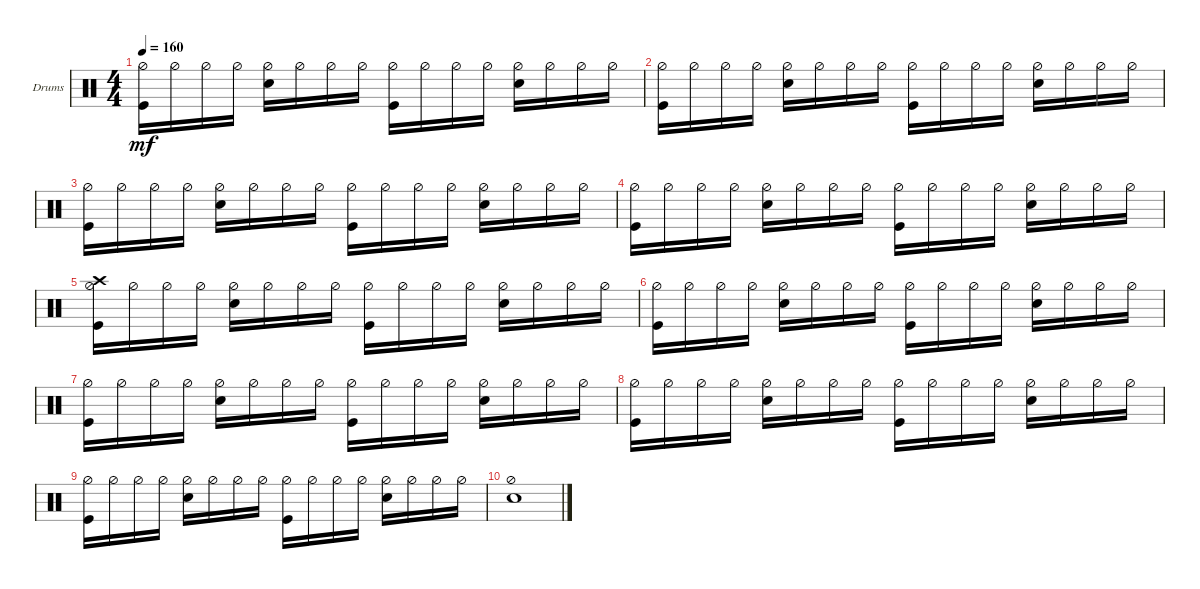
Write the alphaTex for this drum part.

\defaultSystemsLayout 4
\bracketExtendMode groupsimilarinstruments
\firstSystemTrackNameOrientation horizontal
\otherSystemsTrackNameOrientation horizontal
\track ("Drumkit" "Drums") {instrument percussion}
\staff {score}
\articulation defaults
\ts (4 4)
\tempo 160
\clef neutral
\ks c
("Hi-Hat (half)" "Kick (hit)").16{dy mf} "Hi-Hat (half)".16 "Hi-Hat (half)".16 "Hi-Hat (half)".16 ("Hi-Hat (half)" "Snare (hit) 2").16 "Hi-Hat (half)".16 "Hi-Hat (half)".16 "Hi-Hat (half)".16 ("Hi-Hat (half)" "Kick (hit)").16 "Hi-Hat (half)".16 "Hi-Hat (half)".16 "Hi-Hat (half)".16 ("Hi-Hat (half)" "Snare (hit) 2").16 "Hi-Hat (half)".16 "Hi-Hat (half)".16 "Hi-Hat (half)".16 |
("Hi-Hat (half)" "Kick (hit)").16 "Hi-Hat (half)".16 "Hi-Hat (half)".16 "Hi-Hat (half)".16 ("Hi-Hat (half)" "Snare (hit) 2").16 "Hi-Hat (half)".16 "Hi-Hat (half)".16 "Hi-Hat (half)".16 ("Hi-Hat (half)" "Kick (hit)").16 "Hi-Hat (half)".16 "Hi-Hat (half)".16 "Hi-Hat (half)".16 ("Hi-Hat (half)" "Snare (hit) 2").16 "Hi-Hat (half)".16 "Hi-Hat (half)".16 "Hi-Hat (half)".16 |
("Hi-Hat (half)" "Kick (hit)").16 "Hi-Hat (half)".16 "Hi-Hat (half)".16 "Hi-Hat (half)".16 ("Hi-Hat (half)" "Snare (hit) 2").16 "Hi-Hat (half)".16 "Hi-Hat (half)".16 "Hi-Hat (half)".16 ("Hi-Hat (half)" "Kick (hit)").16 "Hi-Hat (half)".16 "Hi-Hat (half)".16 "Hi-Hat (half)".16 ("Hi-Hat (half)" "Snare (hit) 2").16 "Hi-Hat (half)".16 "Hi-Hat (half)".16 "Hi-Hat (half)".16 |
("Hi-Hat (half)" "Kick (hit)").16 "Hi-Hat (half)".16 "Hi-Hat (half)".16 "Hi-Hat (half)".16 ("Hi-Hat (half)" "Snare (hit) 2").16 "Hi-Hat (half)".16 "Hi-Hat (half)".16 "Hi-Hat (half)".16 ("Hi-Hat (half)" "Kick (hit)").16 "Hi-Hat (half)".16 "Hi-Hat (half)".16 "Hi-Hat (half)".16 ("Hi-Hat (half)" "Snare (hit) 2").16 "Hi-Hat (half)".16 "Hi-Hat (half)".16 "Hi-Hat (half)".16 |
("Hi-Hat (half)" "Kick (hit)" "Crash high (hit)").16 "Hi-Hat (half)".16 "Hi-Hat (half)".16 "Hi-Hat (half)".16 ("Hi-Hat (half)" "Snare (hit) 2").16 "Hi-Hat (half)".16 "Hi-Hat (half)".16 "Hi-Hat (half)".16 ("Hi-Hat (half)" "Kick (hit)").16 "Hi-Hat (half)".16 "Hi-Hat (half)".16 "Hi-Hat (half)".16 ("Hi-Hat (half)" "Snare (hit) 2").16 "Hi-Hat (half)".16 "Hi-Hat (half)".16 "Hi-Hat (half)".16 |
("Hi-Hat (half)" "Kick (hit)").16 "Hi-Hat (half)".16 "Hi-Hat (half)".16 "Hi-Hat (half)".16 ("Hi-Hat (half)" "Snare (hit) 2").16 "Hi-Hat (half)".16 "Hi-Hat (half)".16 "Hi-Hat (half)".16 ("Hi-Hat (half)" "Kick (hit)").16 "Hi-Hat (half)".16 "Hi-Hat (half)".16 "Hi-Hat (half)".16 ("Hi-Hat (half)" "Snare (hit) 2").16 "Hi-Hat (half)".16 "Hi-Hat (half)".16 "Hi-Hat (half)".16 |
("Hi-Hat (half)" "Kick (hit)").16 "Hi-Hat (half)".16 "Hi-Hat (half)".16 "Hi-Hat (half)".16 ("Hi-Hat (half)" "Snare (hit) 2").16 "Hi-Hat (half)".16 "Hi-Hat (half)".16 "Hi-Hat (half)".16 ("Hi-Hat (half)" "Kick (hit)").16 "Hi-Hat (half)".16 "Hi-Hat (half)".16 "Hi-Hat (half)".16 ("Hi-Hat (half)" "Snare (hit) 2").16 "Hi-Hat (half)".16 "Hi-Hat (half)".16 "Hi-Hat (half)".16 |
("Hi-Hat (half)" "Kick (hit)").16 "Hi-Hat (half)".16 "Hi-Hat (half)".16 "Hi-Hat (half)".16 ("Hi-Hat (half)" "Snare (hit) 2").16 "Hi-Hat (half)".16 "Hi-Hat (half)".16 "Hi-Hat (half)".16 ("Hi-Hat (half)" "Kick (hit)").16 "Hi-Hat (half)".16 "Hi-Hat (half)".16 "Hi-Hat (half)".16 ("Hi-Hat (half)" "Snare (hit) 2").16 "Hi-Hat (half)".16 "Hi-Hat (half)".16 "Hi-Hat (half)".16 |
("Hi-Hat (half)" "Kick (hit)").16 "Hi-Hat (half)".16 "Hi-Hat (half)".16 "Hi-Hat (half)".16 ("Hi-Hat (half)" "Snare (hit) 2").16 "Hi-Hat (half)".16 "Hi-Hat (half)".16 "Hi-Hat (half)".16 ("Hi-Hat (half)" "Kick (hit)").16 "Hi-Hat (half)".16 "Hi-Hat (half)".16 "Hi-Hat (half)".16 ("Hi-Hat (half)" "Snare (hit) 2").16 "Hi-Hat (half)".16 "Hi-Hat (half)".16 "Hi-Hat (half)".16 |
("Snare (hit) 2" "Hi-Hat (half)").1
